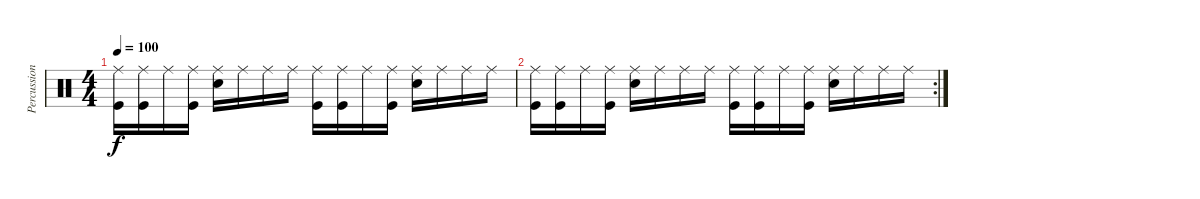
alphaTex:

\track ("Percussion" "Percussion") {instrument percussion}
\staff {score}
\articulation defaults
\ts (4 4)
\tempo 100
\clef neutral
\ks c
("Ride (middle)" "Kick (hit)").16{dy f} ("Ride (middle)" "Kick (hit)").16 "Ride (middle)".16 ("Ride (middle)" "Kick (hit)").16 ("Ride (middle)" "Electric Snare (hit)").16 "Ride (middle)".16 "Ride (middle)".16 "Ride (middle)".16 ("Ride (middle)" "Kick (hit)").16 ("Ride (middle)" "Kick (hit)").16 "Ride (middle)".16 ("Ride (middle)" "Kick (hit)").16 ("Ride (middle)" "Electric Snare (hit)").16 "Ride (middle)".16 "Ride (middle)".16 "Ride (middle)".16 |
\rc 2
("Ride (middle)" "Kick (hit)").16 ("Ride (middle)" "Kick (hit)").16 "Ride (middle)".16 ("Ride (middle)" "Kick (hit)").16 ("Ride (middle)" "Electric Snare (hit)").16 "Ride (middle)".16 "Ride (middle)".16 "Ride (middle)".16 ("Ride (middle)" "Kick (hit)").16 ("Ride (middle)" "Kick (hit)").16 "Ride (middle)".16 ("Ride (middle)" "Kick (hit)").16 ("Ride (middle)" "Electric Snare (hit)").16 "Ride (middle)".16 "Ride (middle)".16 "Ride (middle)".16
